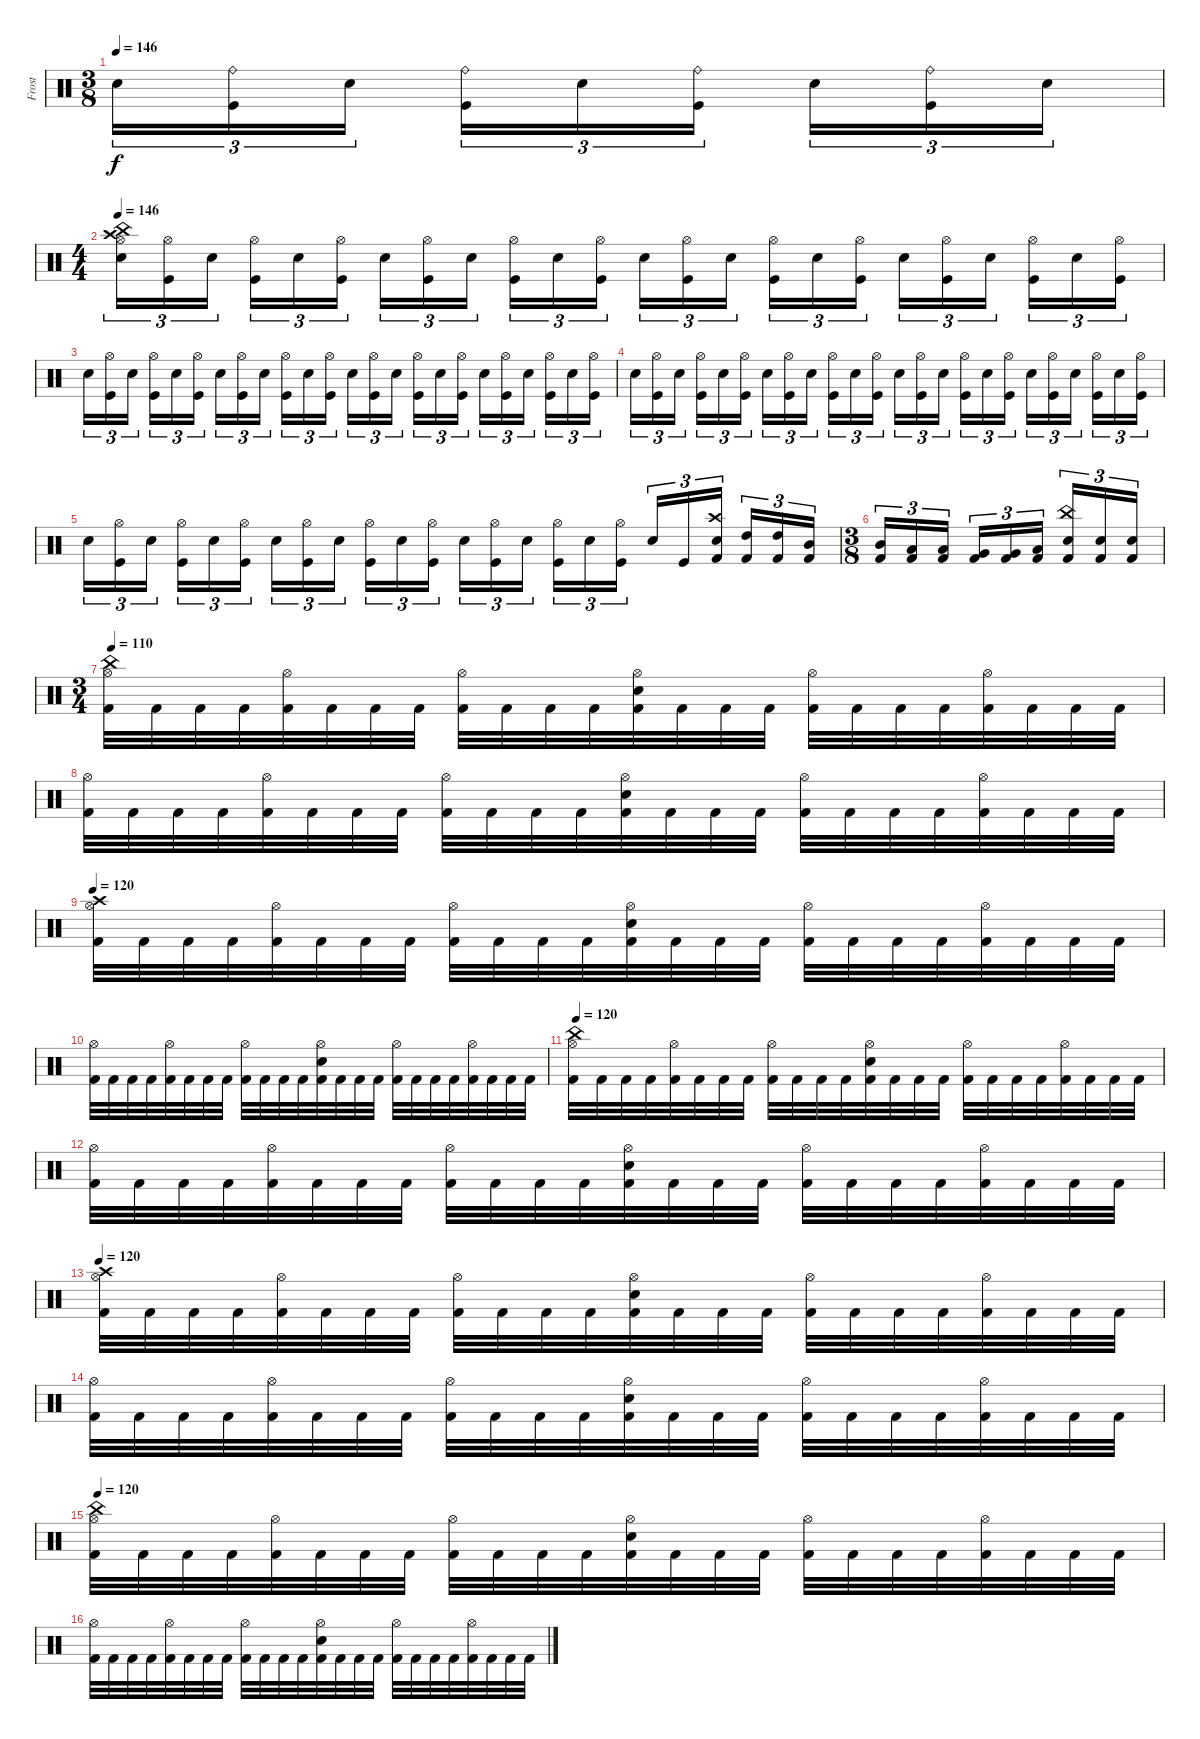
\track ("Frost" "Frost") {instrument percussion}
\staff {score}
\articulation defaults
\ts (3 8)
\tempo 146
\clef neutral
\ks c "Electric Snare (hit)".16{tu (3 2) dy f}
("Ride (bell)" "Kick (hit)").16{tu (3 2)} "Electric Snare (hit)".16{tu (3 2)} ("Ride (bell)" "Kick (hit)").16{tu (3 2)} "Electric Snare (hit)".16{tu (3 2)} ("Ride (bell)" "Kick (hit)").16{tu (3 2)} "Electric Snare (hit)".16{tu (3 2)} ("Ride (bell)" "Kick (hit)").16{tu (3 2)} "Electric Snare (hit)".16{tu (3 2)} |
\ts (4 4)
\tempo 146
("China (hit)" "Crash high (hit)" "Electric Snare (hit)" "Hi-Hat (open)").16{tu (3 2)} ("Hi-Hat (open)" "Kick (hit)").16{tu (3 2)} "Electric Snare (hit)".16{tu (3 2)} ("Hi-Hat (open)" "Kick (hit)").16{tu (3 2)} "Electric Snare (hit)".16{tu (3 2)} ("Hi-Hat (open)" "Kick (hit)").16{tu (3 2)} "Electric Snare (hit)".16{tu (3 2)} ("Hi-Hat (open)" "Kick (hit)").16{tu (3 2)} "Electric Snare (hit)".16{tu (3 2)} ("Hi-Hat (open)" "Kick (hit)").16{tu (3 2)} "Electric Snare (hit)".16{tu (3 2)} ("Hi-Hat (open)" "Kick (hit)").16{tu (3 2)} "Electric Snare (hit)".16{tu (3 2)} ("Hi-Hat (open)" "Kick (hit)").16{tu (3 2)} "Electric Snare (hit)".16{tu (3 2)} ("Hi-Hat (open)" "Kick (hit)").16{tu (3 2)} "Electric Snare (hit)".16{tu (3 2)} ("Hi-Hat (open)" "Kick (hit)").16{tu (3 2)} "Electric Snare (hit)".16{tu (3 2)} ("Hi-Hat (open)" "Kick (hit)").16{tu (3 2)} "Electric Snare (hit)".16{tu (3 2)} ("Hi-Hat (open)" "Kick (hit)").16{tu (3 2)} "Electric Snare (hit)".16{tu (3 2)} ("Hi-Hat (open)" "Kick (hit)").16{tu (3 2)} |
"Electric Snare (hit)".16{tu (3 2)} ("Hi-Hat (open)" "Kick (hit)").16{tu (3 2)} "Electric Snare (hit)".16{tu (3 2)} ("Hi-Hat (open)" "Kick (hit)").16{tu (3 2)} "Electric Snare (hit)".16{tu (3 2)} ("Hi-Hat (open)" "Kick (hit)").16{tu (3 2)} "Electric Snare (hit)".16{tu (3 2)} ("Hi-Hat (open)" "Kick (hit)").16{tu (3 2)} "Electric Snare (hit)".16{tu (3 2)} ("Hi-Hat (open)" "Kick (hit)").16{tu (3 2)} "Electric Snare (hit)".16{tu (3 2)} ("Hi-Hat (open)" "Kick (hit)").16{tu (3 2)} "Electric Snare (hit)".16{tu (3 2)} ("Hi-Hat (open)" "Kick (hit)").16{tu (3 2)} "Electric Snare (hit)".16{tu (3 2)} ("Hi-Hat (open)" "Kick (hit)").16{tu (3 2)} "Electric Snare (hit)".16{tu (3 2)} ("Hi-Hat (open)" "Kick (hit)").16{tu (3 2)} "Electric Snare (hit)".16{tu (3 2)} ("Hi-Hat (open)" "Kick (hit)").16{tu (3 2)} "Electric Snare (hit)".16{tu (3 2)} ("Hi-Hat (open)" "Kick (hit)").16{tu (3 2)} "Electric Snare (hit)".16{tu (3 2)} ("Hi-Hat (open)" "Kick (hit)").16{tu (3 2)} |
"Electric Snare (hit)".16{tu (3 2)} ("Hi-Hat (open)" "Kick (hit)").16{tu (3 2)} "Electric Snare (hit)".16{tu (3 2)} ("Hi-Hat (open)" "Kick (hit)").16{tu (3 2)} "Electric Snare (hit)".16{tu (3 2)} ("Hi-Hat (open)" "Kick (hit)").16{tu (3 2)} "Electric Snare (hit)".16{tu (3 2)} ("Hi-Hat (open)" "Kick (hit)").16{tu (3 2)} "Electric Snare (hit)".16{tu (3 2)} ("Hi-Hat (open)" "Kick (hit)").16{tu (3 2)} "Electric Snare (hit)".16{tu (3 2)} ("Hi-Hat (open)" "Kick (hit)").16{tu (3 2)} "Electric Snare (hit)".16{tu (3 2)} ("Hi-Hat (open)" "Kick (hit)").16{tu (3 2)} "Electric Snare (hit)".16{tu (3 2)} ("Hi-Hat (open)" "Kick (hit)").16{tu (3 2)} "Electric Snare (hit)".16{tu (3 2)} ("Hi-Hat (open)" "Kick (hit)").16{tu (3 2)} "Electric Snare (hit)".16{tu (3 2)} ("Hi-Hat (open)" "Kick (hit)").16{tu (3 2)} "Electric Snare (hit)".16{tu (3 2)} ("Hi-Hat (open)" "Kick (hit)").16{tu (3 2)} "Electric Snare (hit)".16{tu (3 2)} ("Hi-Hat (open)" "Kick (hit)").16{tu (3 2)} |
"Electric Snare (hit)".16{tu (3 2)} ("Hi-Hat (open)" "Kick (hit)").16{tu (3 2)} "Electric Snare (hit)".16{tu (3 2)} ("Hi-Hat (open)" "Kick (hit)").16{tu (3 2)} "Electric Snare (hit)".16{tu (3 2)} ("Hi-Hat (open)" "Kick (hit)").16{tu (3 2)} "Electric Snare (hit)".16{tu (3 2)} ("Hi-Hat (open)" "Kick (hit)").16{tu (3 2)} "Electric Snare (hit)".16{tu (3 2)} ("Hi-Hat (open)" "Kick (hit)").16{tu (3 2)} "Electric Snare (hit)".16{tu (3 2)} ("Hi-Hat (open)" "Kick (hit)").16{tu (3 2)} "Electric Snare (hit)".16{tu (3 2)} ("Hi-Hat (open)" "Kick (hit)").16{tu (3 2)} "Electric Snare (hit)".16{tu (3 2)} ("Hi-Hat (open)" "Kick (hit)").16{tu (3 2)} "Electric Snare (hit)".16{tu (3 2)} ("Hi-Hat (open)" "Kick (hit)").16{tu (3 2)} "Electric Snare (hit)".16{tu (3 2)} "Kick (hit)".16{tu (3 2)} ("Crash high (hit)" "Electric Snare (hit)" "Kick (hit) 2").16{tu (3 2)} ("High Tom (hit)" "Kick (hit) 2").16{tu (3 2)} ("High Tom (hit)" "Kick (hit) 2").16{tu (3 2)} ("Mid Tom (hit)" "Kick (hit) 2").16{tu (3 2)} |
\ts (3 8)
("Mid Tom (hit)" "Kick (hit) 2").16{tu (3 2)} ("Low Tom (hit)" "Kick (hit) 2").16{tu (3 2)} ("Low Tom (hit)" "Kick (hit) 2").16{tu (3 2)} ("Very Low Tom (hit)" "Kick (hit) 2").16{tu (3 2)} ("Very Low Tom (hit)" "Kick (hit) 2").16{tu (3 2)} ("Low Floor Tom (hit)" "Kick (hit) 2").16{tu (3 2)} ("China (hit)" "Electric Snare (hit)" "Kick (hit) 2").16{tu (3 2)} ("Electric Snare (hit)" "Kick (hit) 2").16{tu (3 2)} ("Electric Snare (hit)" "Kick (hit) 2").16{tu (3 2)} |
\ts (3 4)
\tempo 110
("China (hit)" "Kick (hit) 2" "Hi-Hat (open)").32 "Kick (hit) 2".32 "Kick (hit) 2".32 "Kick (hit) 2".32 ("Kick (hit) 2" "Hi-Hat (open)").32 "Kick (hit) 2".32 "Kick (hit) 2".32 "Kick (hit) 2".32 ("Kick (hit) 2" "Hi-Hat (open)").32 "Kick (hit) 2".32 "Kick (hit) 2".32 "Kick (hit) 2".32 ("Kick (hit) 2" "Electric Snare (hit)" "Hi-Hat (open)").32 "Kick (hit) 2".32 "Kick (hit) 2".32 "Kick (hit) 2".32 ("Kick (hit) 2" "Hi-Hat (open)").32 "Kick (hit) 2".32 "Kick (hit) 2".32 "Kick (hit) 2".32 ("Kick (hit) 2" "Hi-Hat (open)").32 "Kick (hit) 2".32 "Kick (hit) 2".32 "Kick (hit) 2".32 |
("Kick (hit) 2" "Hi-Hat (open)").32 "Kick (hit) 2".32 "Kick (hit) 2".32 "Kick (hit) 2".32 ("Kick (hit) 2" "Hi-Hat (open)").32 "Kick (hit) 2".32 "Kick (hit) 2".32 "Kick (hit) 2".32 ("Kick (hit) 2" "Hi-Hat (open)").32 "Kick (hit) 2".32 "Kick (hit) 2".32 "Kick (hit) 2".32 ("Kick (hit) 2" "Electric Snare (hit)" "Hi-Hat (open)").32 "Kick (hit) 2".32 "Kick (hit) 2".32 "Kick (hit) 2".32 ("Kick (hit) 2" "Hi-Hat (open)").32 "Kick (hit) 2".32 "Kick (hit) 2".32 "Kick (hit) 2".32 ("Kick (hit) 2" "Hi-Hat (open)").32 "Kick (hit) 2".32 "Kick (hit) 2".32 "Kick (hit) 2".32 |
\tempo 120
("Crash high (hit)" "Kick (hit) 2" "Hi-Hat (open)").32 "Kick (hit) 2".32 "Kick (hit) 2".32 "Kick (hit) 2".32 ("Kick (hit) 2" "Hi-Hat (open)").32 "Kick (hit) 2".32 "Kick (hit) 2".32 "Kick (hit) 2".32 ("Kick (hit) 2" "Hi-Hat (open)").32 "Kick (hit) 2".32 "Kick (hit) 2".32 "Kick (hit) 2".32 ("Kick (hit) 2" "Electric Snare (hit)" "Hi-Hat (open)").32 "Kick (hit) 2".32 "Kick (hit) 2".32 "Kick (hit) 2".32 ("Kick (hit) 2" "Hi-Hat (open)").32 "Kick (hit) 2".32 "Kick (hit) 2".32 "Kick (hit) 2".32 ("Kick (hit) 2" "Hi-Hat (open)").32 "Kick (hit) 2".32 "Kick (hit) 2".32 "Kick (hit) 2".32 |
("Kick (hit) 2" "Hi-Hat (open)").32 "Kick (hit) 2".32 "Kick (hit) 2".32 "Kick (hit) 2".32 ("Kick (hit) 2" "Hi-Hat (open)").32 "Kick (hit) 2".32 "Kick (hit) 2".32 "Kick (hit) 2".32 ("Kick (hit) 2" "Hi-Hat (open)").32 "Kick (hit) 2".32 "Kick (hit) 2".32 "Kick (hit) 2".32 ("Kick (hit) 2" "Electric Snare (hit)" "Hi-Hat (open)").32 "Kick (hit) 2".32 "Kick (hit) 2".32 "Kick (hit) 2".32 ("Kick (hit) 2" "Hi-Hat (open)").32 "Kick (hit) 2".32 "Kick (hit) 2".32 "Kick (hit) 2".32 ("Kick (hit) 2" "Hi-Hat (open)").32 "Kick (hit) 2".32 "Kick (hit) 2".32 "Kick (hit) 2".32 |
\tempo 120
("China (hit)" "Kick (hit) 2" "Hi-Hat (open)").32 "Kick (hit) 2".32 "Kick (hit) 2".32 "Kick (hit) 2".32 ("Kick (hit) 2" "Hi-Hat (open)").32 "Kick (hit) 2".32 "Kick (hit) 2".32 "Kick (hit) 2".32 ("Kick (hit) 2" "Hi-Hat (open)").32 "Kick (hit) 2".32 "Kick (hit) 2".32 "Kick (hit) 2".32 ("Kick (hit) 2" "Electric Snare (hit)" "Hi-Hat (open)").32 "Kick (hit) 2".32 "Kick (hit) 2".32 "Kick (hit) 2".32 ("Kick (hit) 2" "Hi-Hat (open)").32 "Kick (hit) 2".32 "Kick (hit) 2".32 "Kick (hit) 2".32 ("Kick (hit) 2" "Hi-Hat (open)").32 "Kick (hit) 2".32 "Kick (hit) 2".32 "Kick (hit) 2".32 |
("Kick (hit) 2" "Hi-Hat (open)").32 "Kick (hit) 2".32 "Kick (hit) 2".32 "Kick (hit) 2".32 ("Kick (hit) 2" "Hi-Hat (open)").32 "Kick (hit) 2".32 "Kick (hit) 2".32 "Kick (hit) 2".32 ("Kick (hit) 2" "Hi-Hat (open)").32 "Kick (hit) 2".32 "Kick (hit) 2".32 "Kick (hit) 2".32 ("Kick (hit) 2" "Electric Snare (hit)" "Hi-Hat (open)").32 "Kick (hit) 2".32 "Kick (hit) 2".32 "Kick (hit) 2".32 ("Kick (hit) 2" "Hi-Hat (open)").32 "Kick (hit) 2".32 "Kick (hit) 2".32 "Kick (hit) 2".32 ("Kick (hit) 2" "Hi-Hat (open)").32 "Kick (hit) 2".32 "Kick (hit) 2".32 "Kick (hit) 2".32 |
\tempo 120
("Crash high (hit)" "Kick (hit) 2" "Hi-Hat (open)").32 "Kick (hit) 2".32 "Kick (hit) 2".32 "Kick (hit) 2".32 ("Kick (hit) 2" "Hi-Hat (open)").32 "Kick (hit) 2".32 "Kick (hit) 2".32 "Kick (hit) 2".32 ("Kick (hit) 2" "Hi-Hat (open)").32 "Kick (hit) 2".32 "Kick (hit) 2".32 "Kick (hit) 2".32 ("Kick (hit) 2" "Electric Snare (hit)" "Hi-Hat (open)").32 "Kick (hit) 2".32 "Kick (hit) 2".32 "Kick (hit) 2".32 ("Kick (hit) 2" "Hi-Hat (open)").32 "Kick (hit) 2".32 "Kick (hit) 2".32 "Kick (hit) 2".32 ("Kick (hit) 2" "Hi-Hat (open)").32 "Kick (hit) 2".32 "Kick (hit) 2".32 "Kick (hit) 2".32 |
("Kick (hit) 2" "Hi-Hat (open)").32 "Kick (hit) 2".32 "Kick (hit) 2".32 "Kick (hit) 2".32 ("Kick (hit) 2" "Hi-Hat (open)").32 "Kick (hit) 2".32 "Kick (hit) 2".32 "Kick (hit) 2".32 ("Kick (hit) 2" "Hi-Hat (open)").32 "Kick (hit) 2".32 "Kick (hit) 2".32 "Kick (hit) 2".32 ("Kick (hit) 2" "Electric Snare (hit)" "Hi-Hat (open)").32 "Kick (hit) 2".32 "Kick (hit) 2".32 "Kick (hit) 2".32 ("Kick (hit) 2" "Hi-Hat (open)").32 "Kick (hit) 2".32 "Kick (hit) 2".32 "Kick (hit) 2".32 ("Kick (hit) 2" "Hi-Hat (open)").32 "Kick (hit) 2".32 "Kick (hit) 2".32 "Kick (hit) 2".32 |
\tempo 120
("China (hit)" "Kick (hit) 2" "Hi-Hat (open)").32 "Kick (hit) 2".32 "Kick (hit) 2".32 "Kick (hit) 2".32 ("Kick (hit) 2" "Hi-Hat (open)").32 "Kick (hit) 2".32 "Kick (hit) 2".32 "Kick (hit) 2".32 ("Kick (hit) 2" "Hi-Hat (open)").32 "Kick (hit) 2".32 "Kick (hit) 2".32 "Kick (hit) 2".32 ("Kick (hit) 2" "Electric Snare (hit)" "Hi-Hat (open)").32 "Kick (hit) 2".32 "Kick (hit) 2".32 "Kick (hit) 2".32 ("Kick (hit) 2" "Hi-Hat (open)").32 "Kick (hit) 2".32 "Kick (hit) 2".32 "Kick (hit) 2".32 ("Kick (hit) 2" "Hi-Hat (open)").32 "Kick (hit) 2".32 "Kick (hit) 2".32 "Kick (hit) 2".32 |
("Kick (hit) 2" "Hi-Hat (open)").32 "Kick (hit) 2".32 "Kick (hit) 2".32 "Kick (hit) 2".32 ("Kick (hit) 2" "Hi-Hat (open)").32 "Kick (hit) 2".32 "Kick (hit) 2".32 "Kick (hit) 2".32 ("Kick (hit) 2" "Hi-Hat (open)").32 "Kick (hit) 2".32 "Kick (hit) 2".32 "Kick (hit) 2".32 ("Kick (hit) 2" "Electric Snare (hit)" "Hi-Hat (open)").32 "Kick (hit) 2".32 "Kick (hit) 2".32 "Kick (hit) 2".32 ("Kick (hit) 2" "Hi-Hat (open)").32 "Kick (hit) 2".32 "Kick (hit) 2".32 "Kick (hit) 2".32 ("Kick (hit) 2" "Hi-Hat (open)").32 "Kick (hit) 2".32 "Kick (hit) 2".32 "Kick (hit) 2".32
